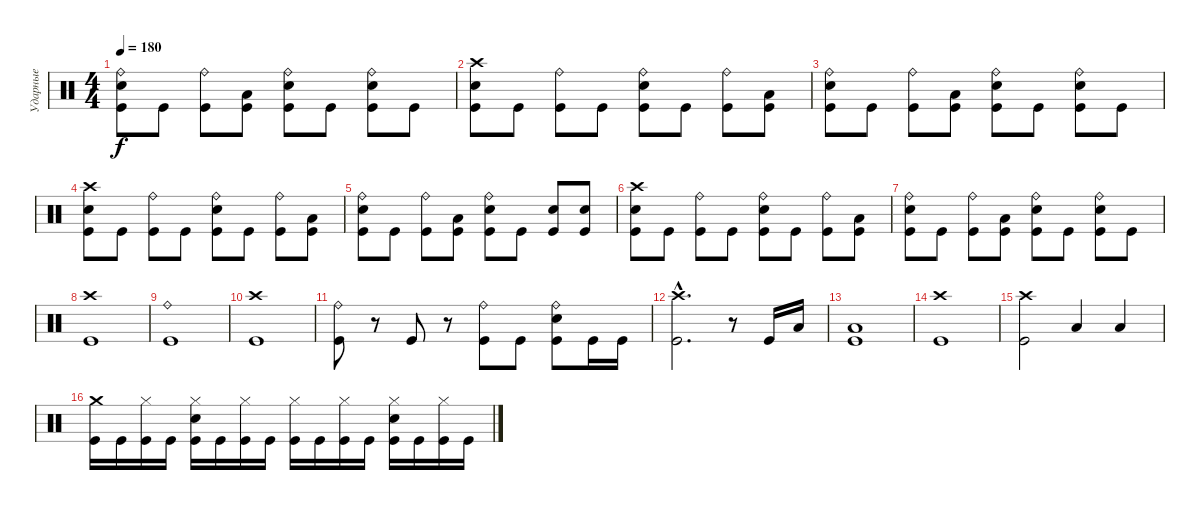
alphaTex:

\track ("Ударные" "Ударные") {instrument percussion}
\staff {score}
\articulation defaults
\ts (4 4)
\tempo 180
\clef neutral
\ks c
("Ride (bell)" "Electric Snare (hit)" "Kick (hit)").8{dy f} "Kick (hit)".8 ("Ride (bell)" "Kick (hit)").8 ("Low Tom (hit)" "Kick (hit)").8 ("Ride (bell)" "Electric Snare (hit)" "Kick (hit)").8 "Kick (hit)".8 ("Ride (bell)" "Electric Snare (hit)" "Kick (hit)").8 "Kick (hit)".8 |
("Crash high (hit)" "Electric Snare (hit)" "Kick (hit)").8 "Kick (hit)".8 ("Ride (bell)" "Kick (hit)").8 "Kick (hit)".8 ("Ride (bell)" "Electric Snare (hit)" "Kick (hit)").8 "Kick (hit)".8 ("Ride (bell)" "Kick (hit)").8 ("Low Tom (hit)" "Kick (hit)").8 |
("Ride (bell)" "Electric Snare (hit)" "Kick (hit)").8 "Kick (hit)".8 ("Ride (bell)" "Kick (hit)").8 ("Low Tom (hit)" "Kick (hit)").8 ("Ride (bell)" "Electric Snare (hit)" "Kick (hit)").8 "Kick (hit)".8 ("Ride (bell)" "Electric Snare (hit)" "Kick (hit)").8 "Kick (hit)".8 |
("Crash high (hit)" "Electric Snare (hit)" "Kick (hit)").8 "Kick (hit)".8 ("Ride (bell)" "Kick (hit)").8 "Kick (hit)".8 ("Ride (bell)" "Electric Snare (hit)" "Kick (hit)").8 "Kick (hit)".8 ("Ride (bell)" "Kick (hit)").8 ("Low Tom (hit)" "Kick (hit)").8 |
("Ride (bell)" "Electric Snare (hit)" "Kick (hit)").8 "Kick (hit)".8 ("Ride (bell)" "Kick (hit)").8 ("Low Tom (hit)" "Kick (hit)").8 ("Ride (bell)" "Electric Snare (hit)" "Kick (hit)").8 "Kick (hit)".8 ("Electric Snare (hit)" "Kick (hit)").8 ("Electric Snare (hit)" "Kick (hit)").8 |
("Crash high (hit)" "Electric Snare (hit)" "Kick (hit)").8 "Kick (hit)".8 ("Ride (bell)" "Kick (hit)").8 "Kick (hit)".8 ("Ride (bell)" "Electric Snare (hit)" "Kick (hit)").8 "Kick (hit)".8 ("Ride (bell)" "Kick (hit)").8 ("Low Tom (hit)" "Kick (hit)").8 |
("Ride (bell)" "Electric Snare (hit)" "Kick (hit)").8 "Kick (hit)".8 ("Ride (bell)" "Kick (hit)").8 ("Low Tom (hit)" "Kick (hit)").8 ("Ride (bell)" "Electric Snare (hit)" "Kick (hit)").8 "Kick (hit)".8 ("Ride (bell)" "Electric Snare (hit)" "Kick (hit)").8 "Kick (hit)".8 |
("Crash high (hit)" "Kick (hit)").1 |
("Ride (bell)" "Kick (hit)").1 |
("Crash high (hit)" "Kick (hit)").1 |
("Ride (bell)" "Kick (hit)").8 r.8 "Kick (hit)".8 r.8 ("Ride (bell)" "Kick (hit)").8 "Kick (hit)".8 ("Ride (bell)" "Electric Snare (hit)" "Kick (hit)").8 "Kick (hit)".16 "Kick (hit)".16 |
("Crash high (hit)"{hac} "Kick (hit)"{hac}).2{d} r.8 "Kick (hit)".16 "Low Tom (hit)".16 |
("Low Tom (hit)" "Kick (hit)").1 |
("Crash high (hit)" "Kick (hit)").1 |
("Crash high (hit)" "Kick (hit)").2 "Low Tom (hit)".4 "Low Tom (hit)".4 |
("Crash medium (hit)" "Kick (hit)").16 "Kick (hit)".16 ("Hi-Hat (closed)" "Kick (hit)").16 "Kick (hit)".16 ("Hi-Hat (closed)" "Electric Snare (hit)" "Kick (hit)").16 "Kick (hit)".16 ("Hi-Hat (closed)" "Kick (hit)").16 "Kick (hit)".16 ("Hi-Hat (closed)" "Kick (hit)").16 "Kick (hit)".16 ("Hi-Hat (closed)" "Kick (hit)").16 "Kick (hit)".16 ("Hi-Hat (closed)" "Electric Snare (hit)" "Kick (hit)").16 "Kick (hit)".16 ("Hi-Hat (closed)" "Kick (hit)").16 "Kick (hit)".16
